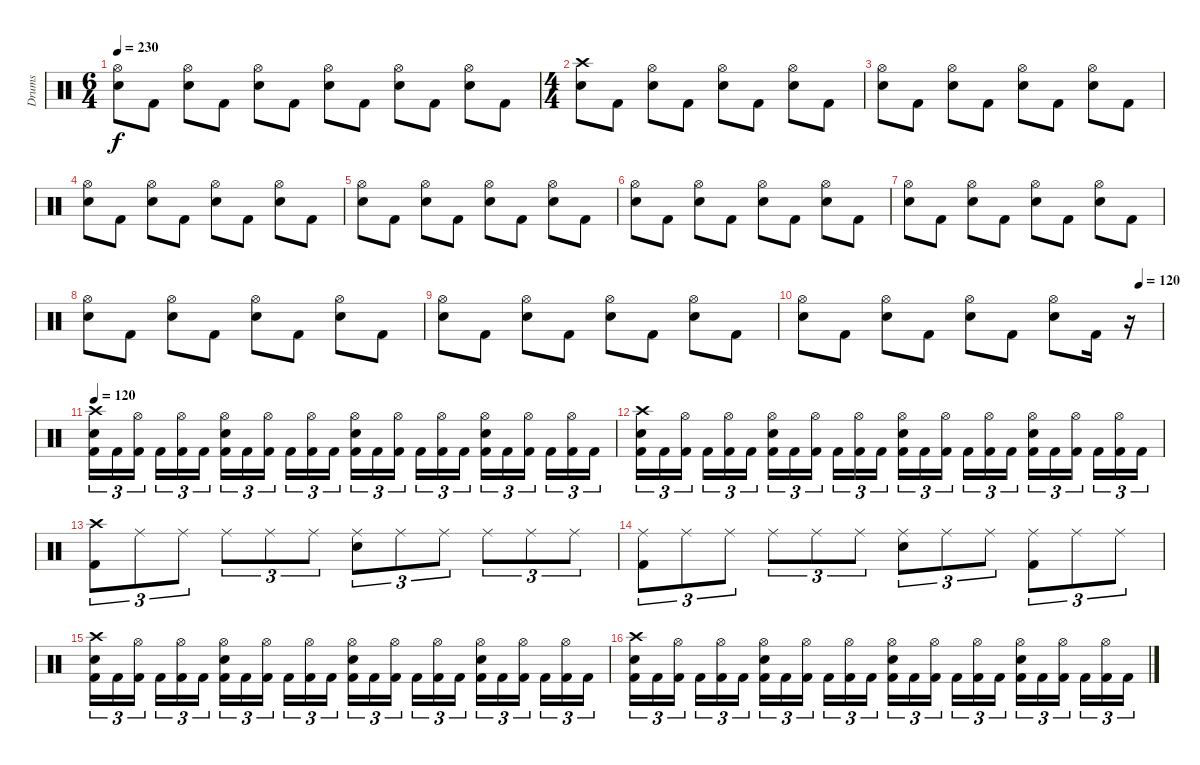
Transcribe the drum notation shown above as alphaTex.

\track ("Drums" "Drums") {instrument percussion}
\staff {score}
\articulation defaults
\ts (6 4)
\tempo 230
\clef neutral
\ks c
("Hi-Hat (open)" "Electric Snare (hit)").8{dy f} "Kick (hit) 2".8 ("Hi-Hat (open)" "Electric Snare (hit)").8 "Kick (hit) 2".8 ("Hi-Hat (open)" "Electric Snare (hit)").8 "Kick (hit) 2".8 ("Hi-Hat (open)" "Electric Snare (hit)").8 "Kick (hit) 2".8 ("Hi-Hat (open)" "Electric Snare (hit)").8 "Kick (hit) 2".8 ("Hi-Hat (open)" "Electric Snare (hit)").8 "Kick (hit) 2".8 |
\ts (4 4)
("Crash high (hit)" "Electric Snare (hit)").8 "Kick (hit) 2".8 ("Hi-Hat (open)" "Electric Snare (hit)").8 "Kick (hit) 2".8 ("Hi-Hat (open)" "Electric Snare (hit)").8 "Kick (hit) 2".8 ("Hi-Hat (open)" "Electric Snare (hit)").8 "Kick (hit) 2".8 |
("Hi-Hat (open)" "Electric Snare (hit)").8 "Kick (hit) 2".8 ("Hi-Hat (open)" "Electric Snare (hit)").8 "Kick (hit) 2".8 ("Hi-Hat (open)" "Electric Snare (hit)").8 "Kick (hit) 2".8 ("Hi-Hat (open)" "Electric Snare (hit)").8 "Kick (hit) 2".8 |
("Hi-Hat (open)" "Electric Snare (hit)").8 "Kick (hit) 2".8 ("Hi-Hat (open)" "Electric Snare (hit)").8 "Kick (hit) 2".8 ("Hi-Hat (open)" "Electric Snare (hit)").8 "Kick (hit) 2".8 ("Hi-Hat (open)" "Electric Snare (hit)").8 "Kick (hit) 2".8 |
("Hi-Hat (open)" "Electric Snare (hit)").8 "Kick (hit) 2".8 ("Hi-Hat (open)" "Electric Snare (hit)").8 "Kick (hit) 2".8 ("Hi-Hat (open)" "Electric Snare (hit)").8 "Kick (hit) 2".8 ("Hi-Hat (open)" "Electric Snare (hit)").8 "Kick (hit) 2".8 |
("Hi-Hat (open)" "Electric Snare (hit)").8 "Kick (hit) 2".8 ("Hi-Hat (open)" "Electric Snare (hit)").8 "Kick (hit) 2".8 ("Hi-Hat (open)" "Electric Snare (hit)").8 "Kick (hit) 2".8 ("Hi-Hat (open)" "Electric Snare (hit)").8 "Kick (hit) 2".8 |
("Hi-Hat (open)" "Electric Snare (hit)").8 "Kick (hit) 2".8 ("Hi-Hat (open)" "Electric Snare (hit)").8 "Kick (hit) 2".8 ("Hi-Hat (open)" "Electric Snare (hit)").8 "Kick (hit) 2".8 ("Hi-Hat (open)" "Electric Snare (hit)").8 "Kick (hit) 2".8 |
("Hi-Hat (open)" "Electric Snare (hit)").8 "Kick (hit) 2".8 ("Hi-Hat (open)" "Electric Snare (hit)").8 "Kick (hit) 2".8 ("Hi-Hat (open)" "Electric Snare (hit)").8 "Kick (hit) 2".8 ("Hi-Hat (open)" "Electric Snare (hit)").8 "Kick (hit) 2".8 |
("Hi-Hat (open)" "Electric Snare (hit)").8 "Kick (hit) 2".8 ("Hi-Hat (open)" "Electric Snare (hit)").8 "Kick (hit) 2".8 ("Hi-Hat (open)" "Electric Snare (hit)").8 "Kick (hit) 2".8 ("Hi-Hat (open)" "Electric Snare (hit)").8 "Kick (hit) 2".8 |
\tempo (120 0.9375)
("Hi-Hat (open)" "Electric Snare (hit)").8 "Kick (hit) 2".8 ("Hi-Hat (open)" "Electric Snare (hit)").8 "Kick (hit) 2".8 ("Hi-Hat (open)" "Electric Snare (hit)").8 "Kick (hit) 2".8 ("Hi-Hat (open)" "Electric Snare (hit)").8 "Kick (hit) 2".16 r.16 |
\tempo 120
("Crash high (hit)" "Electric Snare (hit)" "Kick (hit) 2").16{tu (3 2)} "Kick (hit) 2".16{tu (3 2)} ("Hi-Hat (open)" "Kick (hit) 2").16{tu (3 2)} "Kick (hit) 2".16{tu (3 2)} ("Hi-Hat (open)" "Kick (hit) 2").16{tu (3 2)} "Kick (hit) 2".16{tu (3 2)} ("Hi-Hat (open)" "Electric Snare (hit)" "Kick (hit) 2").16{tu (3 2)} "Kick (hit) 2".16{tu (3 2)} ("Hi-Hat (open)" "Kick (hit) 2").16{tu (3 2)} "Kick (hit) 2".16{tu (3 2)} ("Hi-Hat (open)" "Kick (hit) 2").16{tu (3 2)} "Kick (hit) 2".16{tu (3 2)} ("Hi-Hat (open)" "Electric Snare (hit)" "Kick (hit) 2").16{tu (3 2)} "Kick (hit) 2".16{tu (3 2)} ("Hi-Hat (open)" "Kick (hit) 2").16{tu (3 2)} "Kick (hit) 2".16{tu (3 2)} ("Hi-Hat (open)" "Kick (hit) 2").16{tu (3 2)} "Kick (hit) 2".16{tu (3 2)} ("Hi-Hat (open)" "Electric Snare (hit)" "Kick (hit) 2").16{tu (3 2)} "Kick (hit) 2".16{tu (3 2)} ("Hi-Hat (open)" "Kick (hit) 2").16{tu (3 2)} "Kick (hit) 2".16{tu (3 2)} ("Hi-Hat (open)" "Kick (hit) 2").16{tu (3 2)} "Kick (hit) 2".16{tu (3 2)} |
("Crash high (hit)" "Electric Snare (hit)" "Kick (hit) 2").16{tu (3 2)} "Kick (hit) 2".16{tu (3 2)} ("Hi-Hat (open)" "Kick (hit) 2").16{tu (3 2)} "Kick (hit) 2".16{tu (3 2)} ("Hi-Hat (open)" "Kick (hit) 2").16{tu (3 2)} "Kick (hit) 2".16{tu (3 2)} ("Hi-Hat (open)" "Electric Snare (hit)" "Kick (hit) 2").16{tu (3 2)} "Kick (hit) 2".16{tu (3 2)} ("Hi-Hat (open)" "Kick (hit) 2").16{tu (3 2)} "Kick (hit) 2".16{tu (3 2)} ("Hi-Hat (open)" "Kick (hit) 2").16{tu (3 2)} "Kick (hit) 2".16{tu (3 2)} ("Hi-Hat (open)" "Electric Snare (hit)" "Kick (hit) 2").16{tu (3 2)} "Kick (hit) 2".16{tu (3 2)} ("Hi-Hat (open)" "Kick (hit) 2").16{tu (3 2)} "Kick (hit) 2".16{tu (3 2)} ("Hi-Hat (open)" "Kick (hit) 2").16{tu (3 2)} "Kick (hit) 2".16{tu (3 2)} ("Hi-Hat (open)" "Electric Snare (hit)" "Kick (hit) 2").16{tu (3 2)} "Kick (hit) 2".16{tu (3 2)} ("Hi-Hat (open)" "Kick (hit) 2").16{tu (3 2)} "Kick (hit) 2".16{tu (3 2)} ("Hi-Hat (open)" "Kick (hit) 2").16{tu (3 2)} "Kick (hit) 2".16{tu (3 2)} |
("Crash high (hit)" "Kick (hit) 2").8{tu (3 2)} "Ride (middle)".8{tu (3 2)} "Ride (middle)".8{tu (3 2)} "Ride (middle)".8{tu (3 2)} "Ride (middle)".8{tu (3 2)} "Ride (middle)".8{tu (3 2)} ("Ride (middle)" "Electric Snare (hit)").8{tu (3 2)} "Ride (middle)".8{tu (3 2)} "Ride (middle)".8{tu (3 2)} "Ride (middle)".8{tu (3 2)} "Ride (middle)".8{tu (3 2)} "Ride (middle)".8{tu (3 2)} |
("Ride (middle)" "Kick (hit) 2").8{tu (3 2)} "Ride (middle)".8{tu (3 2)} "Ride (middle)".8{tu (3 2)} "Ride (middle)".8{tu (3 2)} "Ride (middle)".8{tu (3 2)} "Ride (middle)".8{tu (3 2)} ("Ride (middle)" "Electric Snare (hit)").8{tu (3 2)} "Ride (middle)".8{tu (3 2)} "Ride (middle)".8{tu (3 2)} ("Ride (middle)" "Kick (hit) 2").8{tu (3 2)} "Ride (middle)".8{tu (3 2)} "Ride (middle)".8{tu (3 2)} |
("Crash high (hit)" "Electric Snare (hit)" "Kick (hit) 2").16{tu (3 2)} "Kick (hit) 2".16{tu (3 2)} ("Hi-Hat (open)" "Kick (hit) 2").16{tu (3 2)} "Kick (hit) 2".16{tu (3 2)} ("Hi-Hat (open)" "Kick (hit) 2").16{tu (3 2)} "Kick (hit) 2".16{tu (3 2)} ("Hi-Hat (open)" "Electric Snare (hit)" "Kick (hit) 2").16{tu (3 2)} "Kick (hit) 2".16{tu (3 2)} ("Hi-Hat (open)" "Kick (hit) 2").16{tu (3 2)} "Kick (hit) 2".16{tu (3 2)} ("Hi-Hat (open)" "Kick (hit) 2").16{tu (3 2)} "Kick (hit) 2".16{tu (3 2)} ("Hi-Hat (open)" "Electric Snare (hit)" "Kick (hit) 2").16{tu (3 2)} "Kick (hit) 2".16{tu (3 2)} ("Hi-Hat (open)" "Kick (hit) 2").16{tu (3 2)} "Kick (hit) 2".16{tu (3 2)} ("Hi-Hat (open)" "Kick (hit) 2").16{tu (3 2)} "Kick (hit) 2".16{tu (3 2)} ("Hi-Hat (open)" "Electric Snare (hit)" "Kick (hit) 2").16{tu (3 2)} "Kick (hit) 2".16{tu (3 2)} ("Hi-Hat (open)" "Kick (hit) 2").16{tu (3 2)} "Kick (hit) 2".16{tu (3 2)} ("Hi-Hat (open)" "Kick (hit) 2").16{tu (3 2)} "Kick (hit) 2".16{tu (3 2)} |
("Crash high (hit)" "Electric Snare (hit)" "Kick (hit) 2").16{tu (3 2)} "Kick (hit) 2".16{tu (3 2)} ("Hi-Hat (open)" "Kick (hit) 2").16{tu (3 2)} "Kick (hit) 2".16{tu (3 2)} ("Hi-Hat (open)" "Kick (hit) 2").16{tu (3 2)} "Kick (hit) 2".16{tu (3 2)} ("Hi-Hat (open)" "Electric Snare (hit)" "Kick (hit) 2").16{tu (3 2)} "Kick (hit) 2".16{tu (3 2)} ("Hi-Hat (open)" "Kick (hit) 2").16{tu (3 2)} "Kick (hit) 2".16{tu (3 2)} ("Hi-Hat (open)" "Kick (hit) 2").16{tu (3 2)} "Kick (hit) 2".16{tu (3 2)} ("Hi-Hat (open)" "Electric Snare (hit)" "Kick (hit) 2").16{tu (3 2)} "Kick (hit) 2".16{tu (3 2)} ("Hi-Hat (open)" "Kick (hit) 2").16{tu (3 2)} "Kick (hit) 2".16{tu (3 2)} ("Hi-Hat (open)" "Kick (hit) 2").16{tu (3 2)} "Kick (hit) 2".16{tu (3 2)} ("Hi-Hat (open)" "Electric Snare (hit)" "Kick (hit) 2").16{tu (3 2)} "Kick (hit) 2".16{tu (3 2)} ("Hi-Hat (open)" "Kick (hit) 2").16{tu (3 2)} "Kick (hit) 2".16{tu (3 2)} ("Hi-Hat (open)" "Kick (hit) 2").16{tu (3 2)} "Kick (hit) 2".16{tu (3 2)}
